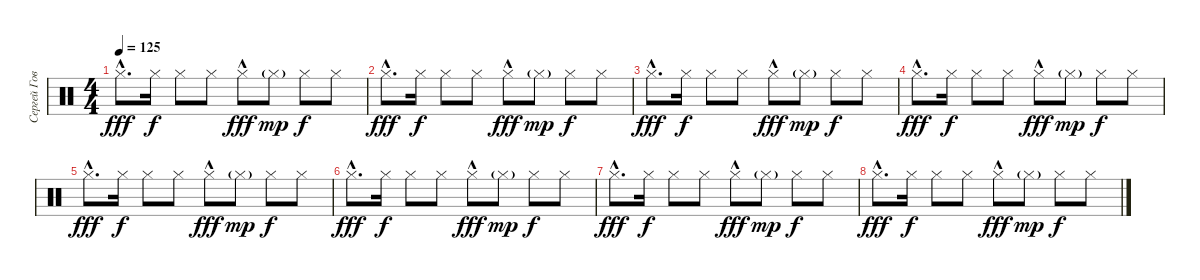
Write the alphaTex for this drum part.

\track ("Сергей Говорун" "Сергей Гов") {instrument percussion}
\staff {score}
\articulation defaults
\ts (4 4)
\tempo 125
\clef neutral
\ks c "Hi-Hat (closed)"{hac}.8{d dy fff} "Hi-Hat (closed)".16{dy f} "Hi-Hat (closed)".8 "Hi-Hat (closed)".8 "Hi-Hat (closed)"{hac}.8{dy fff} "Hi-Hat (closed)"{g}.8{dy mp} "Hi-Hat (closed)".8{dy f} "Hi-Hat (closed)".8
|
"Hi-Hat (closed)"{hac}.8{d dy fff} "Hi-Hat (closed)".16{dy f} "Hi-Hat (closed)".8 "Hi-Hat (closed)".8 "Hi-Hat (closed)"{hac}.8{dy fff} "Hi-Hat (closed)"{g}.8{dy mp} "Hi-Hat (closed)".8{dy f} "Hi-Hat (closed)".8 |
"Hi-Hat (closed)"{hac}.8{d dy fff} "Hi-Hat (closed)".16{dy f} "Hi-Hat (closed)".8 "Hi-Hat (closed)".8 "Hi-Hat (closed)"{hac}.8{dy fff} "Hi-Hat (closed)"{g}.8{dy mp} "Hi-Hat (closed)".8{dy f} "Hi-Hat (closed)".8 |
"Hi-Hat (closed)"{hac}.8{d dy fff} "Hi-Hat (closed)".16{dy f} "Hi-Hat (closed)".8 "Hi-Hat (closed)".8 "Hi-Hat (closed)"{hac}.8{dy fff} "Hi-Hat (closed)"{g}.8{dy mp} "Hi-Hat (closed)".8{dy f} "Hi-Hat (closed)".8 |
"Hi-Hat (closed)"{hac}.8{d dy fff} "Hi-Hat (closed)".16{dy f} "Hi-Hat (closed)".8 "Hi-Hat (closed)".8 "Hi-Hat (closed)"{hac}.8{dy fff} "Hi-Hat (closed)"{g}.8{dy mp} "Hi-Hat (closed)".8{dy f} "Hi-Hat (closed)".8 |
"Hi-Hat (closed)"{hac}.8{d dy fff} "Hi-Hat (closed)".16{dy f} "Hi-Hat (closed)".8 "Hi-Hat (closed)".8 "Hi-Hat (closed)"{hac}.8{dy fff} "Hi-Hat (closed)"{g}.8{dy mp} "Hi-Hat (closed)".8{dy f} "Hi-Hat (closed)".8 |
"Hi-Hat (closed)"{hac}.8{d dy fff} "Hi-Hat (closed)".16{dy f} "Hi-Hat (closed)".8 "Hi-Hat (closed)".8 "Hi-Hat (closed)"{hac}.8{dy fff} "Hi-Hat (closed)"{g}.8{dy mp} "Hi-Hat (closed)".8{dy f} "Hi-Hat (closed)".8 |
"Hi-Hat (closed)"{hac}.8{d dy fff} "Hi-Hat (closed)".16{dy f} "Hi-Hat (closed)".8 "Hi-Hat (closed)".8 "Hi-Hat (closed)"{hac}.8{dy fff} "Hi-Hat (closed)"{g}.8{dy mp} "Hi-Hat (closed)".8{dy f} "Hi-Hat (closed)".8
